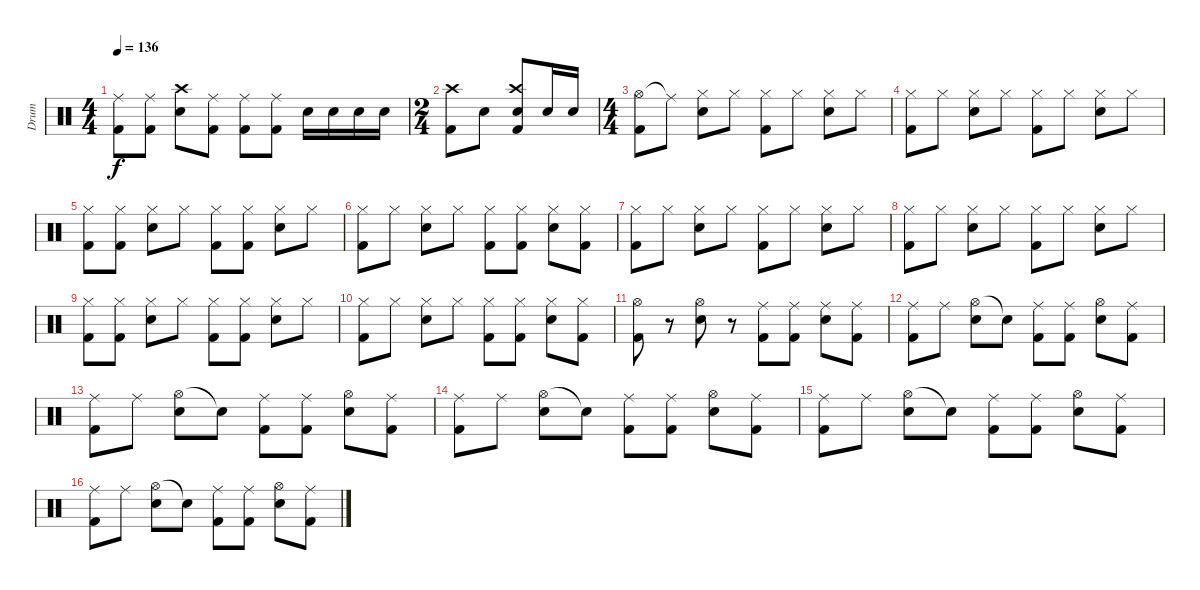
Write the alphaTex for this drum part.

\track ("Drum" "Drum") {instrument percussion}
\staff {score}
\articulation defaults
\ts (4 4)
\tempo 136
\clef neutral
\ks c
("Ride (middle)" "Kick (hit) 2").8{dy f} ("Ride (middle)" "Kick (hit) 2").8 ("Crash high (hit)" "Electric Snare (hit)").8 ("Ride (middle)" "Kick (hit) 2").8 ("Ride (middle)" "Kick (hit) 2").8 ("Ride (middle)" "Kick (hit) 2").8 "Electric Snare (hit)".16 "Electric Snare (hit)".16 "Electric Snare (hit)".16 "Electric Snare (hit)".16 |
\ts (2 4)
("Crash high (hit)" "Kick (hit) 2").8 "Electric Snare (hit)".8 ("Crash high (hit)" "Electric Snare (hit)" "Kick (hit) 2").8 "Electric Snare (hit)".16 "Electric Snare (hit)".16 |
\ts (4 4)
("Hi-Hat (open)" "Kick (hit) 2").8 "Ride (middle)"{t}.8 ("Hi-Hat (closed)" "Electric Snare (hit)").8 "Hi-Hat (closed)".8 ("Hi-Hat (closed)" "Kick (hit) 2").8 "Hi-Hat (closed)".8 ("Hi-Hat (closed)" "Electric Snare (hit)").8 "Hi-Hat (closed)".8 |
("Hi-Hat (closed)" "Kick (hit) 2").8 "Hi-Hat (closed)".8 ("Hi-Hat (closed)" "Electric Snare (hit)").8 "Hi-Hat (closed)".8 ("Hi-Hat (closed)" "Kick (hit) 2").8 "Hi-Hat (closed)".8 ("Hi-Hat (closed)" "Electric Snare (hit)").8 "Hi-Hat (closed)".8 |
("Hi-Hat (closed)" "Kick (hit) 2").8 ("Hi-Hat (closed)" "Kick (hit) 2").8 ("Hi-Hat (closed)" "Electric Snare (hit)").8 "Hi-Hat (closed)".8 ("Hi-Hat (closed)" "Kick (hit) 2").8 ("Hi-Hat (closed)" "Kick (hit) 2").8 ("Hi-Hat (closed)" "Electric Snare (hit)").8 "Hi-Hat (closed)".8 |
("Hi-Hat (closed)" "Kick (hit) 2").8 "Hi-Hat (closed)".8 ("Hi-Hat (closed)" "Electric Snare (hit)").8 "Hi-Hat (closed)".8 ("Hi-Hat (closed)" "Kick (hit) 2").8 ("Hi-Hat (closed)" "Kick (hit) 2").8 ("Hi-Hat (closed)" "Electric Snare (hit)").8 ("Hi-Hat (closed)" "Kick (hit) 2").8 |
("Hi-Hat (closed)" "Kick (hit) 2").8 "Hi-Hat (closed)".8 ("Hi-Hat (closed)" "Electric Snare (hit)").8 "Hi-Hat (closed)".8 ("Hi-Hat (closed)" "Kick (hit) 2").8 "Hi-Hat (closed)".8 ("Hi-Hat (closed)" "Electric Snare (hit)").8 "Hi-Hat (closed)".8 |
("Hi-Hat (closed)" "Kick (hit) 2").8 "Hi-Hat (closed)".8 ("Hi-Hat (closed)" "Electric Snare (hit)").8 "Hi-Hat (closed)".8 ("Hi-Hat (closed)" "Kick (hit) 2").8 "Hi-Hat (closed)".8 ("Hi-Hat (closed)" "Electric Snare (hit)").8 "Hi-Hat (closed)".8 |
("Hi-Hat (closed)" "Kick (hit) 2").8 ("Hi-Hat (closed)" "Kick (hit) 2").8 ("Hi-Hat (closed)" "Electric Snare (hit)").8 "Hi-Hat (closed)".8 ("Hi-Hat (closed)" "Kick (hit) 2").8 ("Hi-Hat (closed)" "Kick (hit) 2").8 ("Hi-Hat (closed)" "Electric Snare (hit)").8 "Hi-Hat (closed)".8 |
("Hi-Hat (closed)" "Kick (hit) 2").8 "Hi-Hat (closed)".8 ("Hi-Hat (closed)" "Electric Snare (hit)").8 "Hi-Hat (closed)".8 ("Hi-Hat (closed)" "Kick (hit) 2").8 ("Hi-Hat (closed)" "Kick (hit) 2").8 ("Hi-Hat (closed)" "Electric Snare (hit)").8 ("Hi-Hat (closed)" "Kick (hit) 2").8 |
("Hi-Hat (open)" "Kick (hit) 2").8 r.8 ("Hi-Hat (open)" "Electric Snare (hit)").8 r.8 ("Ride (middle)" "Kick (hit) 2").8 ("Ride (middle)" "Kick (hit) 2").8 ("Ride (middle)" "Electric Snare (hit)").8 ("Ride (middle)" "Kick (hit) 2").8 |
("Ride (middle)" "Kick (hit) 2").8 "Ride (middle)".8 ("Hi-Hat (open)" "Electric Snare (hit)").8 "Snare (hit)"{t}.8 ("Ride (middle)" "Kick (hit) 2").8 ("Ride (middle)" "Kick (hit) 2").8 ("Hi-Hat (open)" "Electric Snare (hit)").8 ("Ride (middle)" "Kick (hit) 2").8 |
("Ride (middle)" "Kick (hit) 2").8 "Ride (middle)".8 ("Hi-Hat (open)" "Electric Snare (hit)").8 "Snare (hit)"{t}.8 ("Ride (middle)" "Kick (hit) 2").8 ("Ride (middle)" "Kick (hit) 2").8 ("Hi-Hat (open)" "Electric Snare (hit)").8 ("Ride (middle)" "Kick (hit) 2").8 |
("Ride (middle)" "Kick (hit) 2").8 "Ride (middle)".8 ("Hi-Hat (open)" "Electric Snare (hit)").8 "Snare (hit)"{t}.8 ("Ride (middle)" "Kick (hit) 2").8 ("Ride (middle)" "Kick (hit) 2").8 ("Hi-Hat (open)" "Electric Snare (hit)").8 ("Ride (middle)" "Kick (hit) 2").8 |
("Ride (middle)" "Kick (hit) 2").8 "Ride (middle)".8 ("Hi-Hat (open)" "Electric Snare (hit)").8 "Snare (hit)"{t}.8 ("Ride (middle)" "Kick (hit) 2").8 ("Ride (middle)" "Kick (hit) 2").8 ("Hi-Hat (open)" "Electric Snare (hit)").8 ("Ride (middle)" "Kick (hit) 2").8 |
("Ride (middle)" "Kick (hit) 2").8 "Ride (middle)".8 ("Hi-Hat (open)" "Electric Snare (hit)").8 "Snare (hit)"{t}.8 ("Ride (middle)" "Kick (hit) 2").8 ("Ride (middle)" "Kick (hit) 2").8 ("Hi-Hat (open)" "Electric Snare (hit)").8 ("Ride (middle)" "Kick (hit) 2").8
